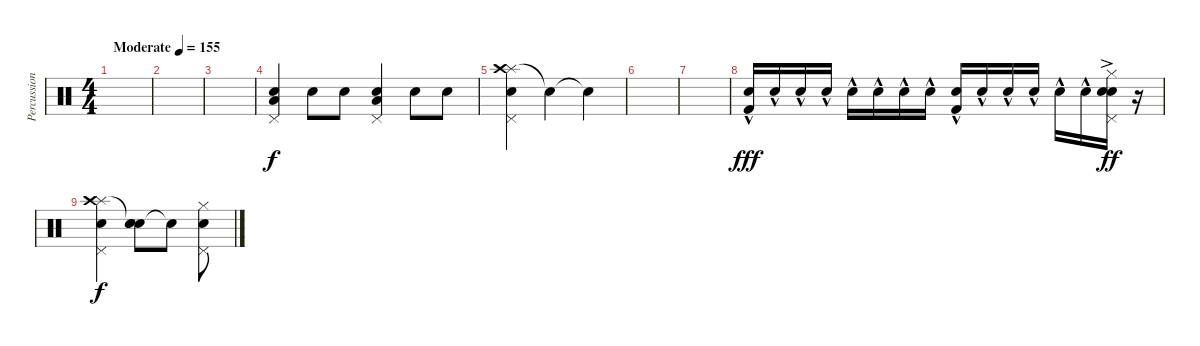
\track ("Percussion" "Percussion") {instrument percussion}
\staff {score}
\articulation defaults
\ts (4 4)
\tempo (155 "Moderate")
\clef neutral
\ks c
|
|
|
("Low Tom (hit)" "Snare (hit) 2" "Pedal Hi-Hat (hit)").4 "Electric Snare (hit)".8 "Electric Snare (hit)".8 ("Low Tom (hit)" "Snare (hit) 2" "Pedal Hi-Hat (hit)").4 "Electric Snare (hit)".8 "Electric Snare (hit)".8 |
("Splash (hit)" "Crash high (hit)" "Snare (hit) 2" "Pedal Hi-Hat (hit)").4 "Snare (hit)"{t}.4 "Snare (hit)"{t}.4 |
|
|
("Snare (hit) 2"{hac} "Kick (hit) 2"{hac}).16{dy fff} "Snare (hit) 2"{hac}.16 "Snare (hit) 2"{hac}.16 "Snare (hit) 2"{hac}.16 "Snare (hit) 2"{hac}.16 "Snare (hit) 2"{hac}.16 "Snare (hit) 2"{hac}.16 "Snare (hit) 2"{hac}.16 ("Snare (hit) 2"{hac} "Kick (hit) 2"{hac}).16 "Snare (hit) 2"{hac}.16 "Snare (hit) 2"{hac}.16 "Snare (hit) 2"{hac}.16 "Snare (hit) 2"{hac}.16 "Snare (hit) 2"{hac}.16 ("Hi-Hat (closed)"{ac} "Pedal Hi-Hat (hit)"{ac} "Electric Snare (hit)"{ac} "Snare (hit) 2"{ac}).16{dy ff} r.16 |
("Splash (hit)" "Crash high (hit)" "Snare (hit) 2" "Pedal Hi-Hat (hit)").4{dy f} ("Snare (hit)"{t} "Electric Snare (hit)" "Snare (hit) 2").8 "Snare (hit)"{t}.8 ("Hi-Hat (closed)" "Electric Snare (hit)" "Pedal Hi-Hat (hit)").8
